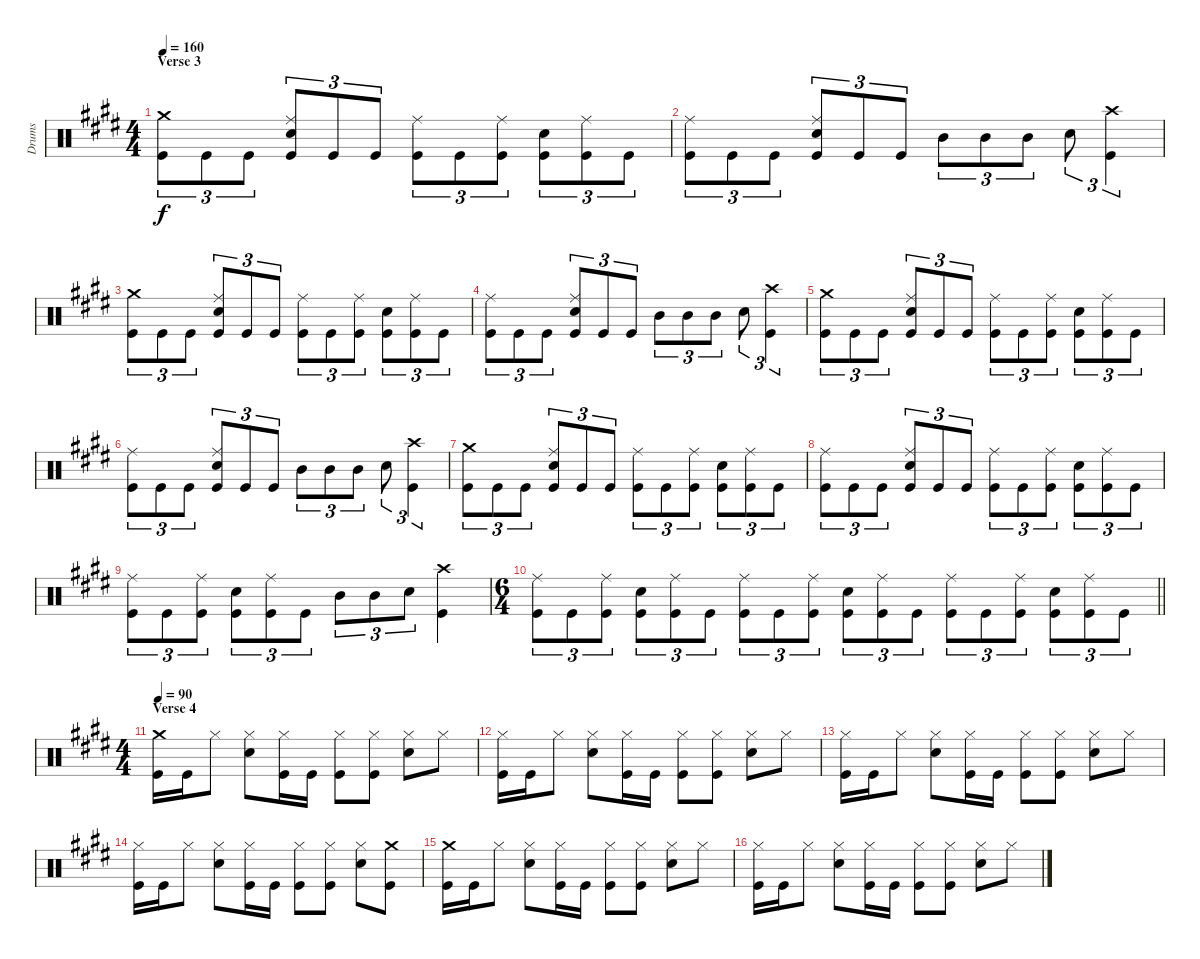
\track ("Drums" "Drums") {instrument percussion}
\staff {score}
\articulation defaults
\ts (4 4)
\section ("" "Verse 3")
\tempo 160
\clef neutral
\ks e
("Crash medium (hit)" "Kick (hit)").8{tu (3 2) dy f} "Kick (hit)".8{tu (3 2)} "Kick (hit)".8{tu (3 2)} ("Ride (middle)" "Snare (hit) 2" "Kick (hit)").8{tu (3 2)} "Kick (hit)".8{tu (3 2)} "Kick (hit)".8{tu (3 2)} ("Ride (middle)" "Kick (hit)").8{tu (3 2)} "Kick (hit)".8{tu (3 2)} ("Ride (middle)" "Kick (hit)").8{tu (3 2)} ("Snare (hit) 2" "Kick (hit)").8{tu (3 2)} ("Ride (middle)" "Kick (hit)").8{tu (3 2)} "Kick (hit)".8{tu (3 2)} |
("Ride (middle)" "Kick (hit)").8{tu (3 2)} "Kick (hit)".8{tu (3 2)} "Kick (hit)".8{tu (3 2)} ("Ride (middle)" "Snare (hit) 2" "Kick (hit)").8{tu (3 2)} "Kick (hit)".8{tu (3 2)} "Kick (hit)".8{tu (3 2)} "Mid Tom (hit)".8{tu (3 2)} "Mid Tom (hit)".8{tu (3 2)} "Mid Tom (hit)".8{tu (3 2)} "Snare (hit) 2".8{tu (3 2)} ("Crash high (hit)" "Kick (hit)").4{tu (3 2)} |
("Crash medium (hit)" "Kick (hit)").8{tu (3 2)} "Kick (hit)".8{tu (3 2)} "Kick (hit)".8{tu (3 2)} ("Ride (middle)" "Snare (hit) 2" "Kick (hit)").8{tu (3 2)} "Kick (hit)".8{tu (3 2)} "Kick (hit)".8{tu (3 2)} ("Ride (middle)" "Kick (hit)").8{tu (3 2)} "Kick (hit)".8{tu (3 2)} ("Ride (middle)" "Kick (hit)").8{tu (3 2)} ("Snare (hit) 2" "Kick (hit)").8{tu (3 2)} ("Ride (middle)" "Kick (hit)").8{tu (3 2)} "Kick (hit)".8{tu (3 2)} |
("Ride (middle)" "Kick (hit)").8{tu (3 2)} "Kick (hit)".8{tu (3 2)} "Kick (hit)".8{tu (3 2)} ("Ride (middle)" "Snare (hit) 2" "Kick (hit)").8{tu (3 2)} "Kick (hit)".8{tu (3 2)} "Kick (hit)".8{tu (3 2)} "Mid Tom (hit)".8{tu (3 2)} "Mid Tom (hit)".8{tu (3 2)} "Mid Tom (hit)".8{tu (3 2)} "Snare (hit) 2".8{tu (3 2)} ("Crash high (hit)" "Kick (hit)").4{tu (3 2)} |
("Crash medium (hit)" "Kick (hit)").8{tu (3 2)} "Kick (hit)".8{tu (3 2)} "Kick (hit)".8{tu (3 2)} ("Ride (middle)" "Snare (hit) 2" "Kick (hit)").8{tu (3 2)} "Kick (hit)".8{tu (3 2)} "Kick (hit)".8{tu (3 2)} ("Ride (middle)" "Kick (hit)").8{tu (3 2)} "Kick (hit)".8{tu (3 2)} ("Ride (middle)" "Kick (hit)").8{tu (3 2)} ("Snare (hit) 2" "Kick (hit)").8{tu (3 2)} ("Ride (middle)" "Kick (hit)").8{tu (3 2)} "Kick (hit)".8{tu (3 2)} |
("Ride (middle)" "Kick (hit)").8{tu (3 2)} "Kick (hit)".8{tu (3 2)} "Kick (hit)".8{tu (3 2)} ("Ride (middle)" "Snare (hit) 2" "Kick (hit)").8{tu (3 2)} "Kick (hit)".8{tu (3 2)} "Kick (hit)".8{tu (3 2)} "Mid Tom (hit)".8{tu (3 2)} "Mid Tom (hit)".8{tu (3 2)} "Mid Tom (hit)".8{tu (3 2)} "Snare (hit) 2".8{tu (3 2)} ("Crash high (hit)" "Kick (hit)").4{tu (3 2)} |
("Crash medium (hit)" "Kick (hit)").8{tu (3 2)} "Kick (hit)".8{tu (3 2)} "Kick (hit)".8{tu (3 2)} ("Ride (middle)" "Snare (hit) 2" "Kick (hit)").8{tu (3 2)} "Kick (hit)".8{tu (3 2)} "Kick (hit)".8{tu (3 2)} ("Ride (middle)" "Kick (hit)").8{tu (3 2)} "Kick (hit)".8{tu (3 2)} ("Ride (middle)" "Kick (hit)").8{tu (3 2)} ("Snare (hit) 2" "Kick (hit)").8{tu (3 2)} ("Ride (middle)" "Kick (hit)").8{tu (3 2)} "Kick (hit)".8{tu (3 2)} |
("Ride (middle)" "Kick (hit)").8{tu (3 2)} "Kick (hit)".8{tu (3 2)} "Kick (hit)".8{tu (3 2)} ("Ride (middle)" "Snare (hit) 2" "Kick (hit)").8{tu (3 2)} "Kick (hit)".8{tu (3 2)} "Kick (hit)".8{tu (3 2)} ("Ride (middle)" "Kick (hit)").8{tu (3 2)} "Kick (hit)".8{tu (3 2)} ("Ride (middle)" "Kick (hit)").8{tu (3 2)} ("Snare (hit) 2" "Kick (hit)").8{tu (3 2)} ("Ride (middle)" "Kick (hit)").8{tu (3 2)} "Kick (hit)".8{tu (3 2)} |
("Ride (middle)" "Kick (hit)").8{tu (3 2)} "Kick (hit)".8{tu (3 2)} ("Ride (middle)" "Kick (hit)").8{tu (3 2)} ("Snare (hit) 2" "Kick (hit)").8{tu (3 2)} ("Ride (middle)" "Kick (hit)").8{tu (3 2)} "Kick (hit)".8{tu (3 2)} "Mid Tom (hit)".8{tu (3 2)} "Mid Tom (hit)".8{tu (3 2)} "Snare (hit) 2".8{tu (3 2)} ("Crash high (hit)" "Kick (hit)").4 |
\ts (6 4)
\barLineRight lightlight
("Ride (middle)" "Kick (hit)").8{tu (3 2)} "Kick (hit)".8{tu (3 2)} ("Ride (middle)" "Kick (hit)").8{tu (3 2)} ("Snare (hit) 2" "Kick (hit)").8{tu (3 2)} ("Ride (middle)" "Kick (hit)").8{tu (3 2)} "Kick (hit)".8{tu (3 2)} ("Ride (middle)" "Kick (hit)").8{tu (3 2)} "Kick (hit)".8{tu (3 2)} ("Ride (middle)" "Kick (hit)").8{tu (3 2)} ("Snare (hit) 2" "Kick (hit)").8{tu (3 2)} ("Ride (middle)" "Kick (hit)").8{tu (3 2)} "Kick (hit)".8{tu (3 2)} ("Ride (middle)" "Kick (hit)").8{tu (3 2)} "Kick (hit)".8{tu (3 2)} ("Ride (middle)" "Kick (hit)").8{tu (3 2)} ("Snare (hit) 2" "Kick (hit)").8{tu (3 2)} ("Ride (middle)" "Kick (hit)").8{tu (3 2)} "Kick (hit)".8{tu (3 2)} |
\ts (4 4)
\section ("" "Verse 4")
\tempo 90
("Crash medium (hit)" "Kick (hit)").16 "Kick (hit)".16 "Hi-Hat (closed)".8 ("Hi-Hat (closed)" "Snare (hit) 2").8 ("Hi-Hat (closed)" "Kick (hit)").16 "Kick (hit)".16 ("Hi-Hat (closed)" "Kick (hit)").8 ("Hi-Hat (closed)" "Kick (hit)").8 ("Hi-Hat (closed)" "Snare (hit) 2").8 "Hi-Hat (closed)".8 |
("Hi-Hat (closed)" "Kick (hit)").16 "Kick (hit)".16 "Hi-Hat (closed)".8 ("Hi-Hat (closed)" "Snare (hit) 2").8 ("Hi-Hat (closed)" "Kick (hit)").16 "Kick (hit)".16 ("Hi-Hat (closed)" "Kick (hit)").8 ("Hi-Hat (closed)" "Kick (hit)").8 ("Hi-Hat (closed)" "Snare (hit) 2").8 "Hi-Hat (closed)".8 |
("Hi-Hat (closed)" "Kick (hit)").16 "Kick (hit)".16 "Hi-Hat (closed)".8 ("Hi-Hat (closed)" "Snare (hit) 2").8 ("Hi-Hat (closed)" "Kick (hit)").16 "Kick (hit)".16 ("Hi-Hat (closed)" "Kick (hit)").8 ("Hi-Hat (closed)" "Kick (hit)").8 ("Hi-Hat (closed)" "Snare (hit) 2").8 "Hi-Hat (closed)".8 |
("Hi-Hat (closed)" "Kick (hit)").16 "Kick (hit)".16 "Hi-Hat (closed)".8 ("Hi-Hat (closed)" "Snare (hit) 2").8 ("Hi-Hat (closed)" "Kick (hit)").16 "Kick (hit)".16 ("Hi-Hat (closed)" "Kick (hit)").8 ("Hi-Hat (closed)" "Kick (hit)").8 ("Hi-Hat (closed)" "Snare (hit) 2").8 ("Crash medium (hit)" "Kick (hit)").8 |
("Crash medium (hit)" "Kick (hit)").16 "Kick (hit)".16 "Hi-Hat (closed)".8 ("Hi-Hat (closed)" "Snare (hit) 2").8 ("Hi-Hat (closed)" "Kick (hit)").16 "Kick (hit)".16 ("Hi-Hat (closed)" "Kick (hit)").8 ("Hi-Hat (closed)" "Kick (hit)").8 ("Hi-Hat (closed)" "Snare (hit) 2").8 "Hi-Hat (closed)".8 |
("Hi-Hat (closed)" "Kick (hit)").16 "Kick (hit)".16 "Hi-Hat (closed)".8 ("Hi-Hat (closed)" "Snare (hit) 2").8 ("Hi-Hat (closed)" "Kick (hit)").16 "Kick (hit)".16 ("Hi-Hat (closed)" "Kick (hit)").8 ("Hi-Hat (closed)" "Kick (hit)").8 ("Hi-Hat (closed)" "Snare (hit) 2").8 "Hi-Hat (closed)".8
